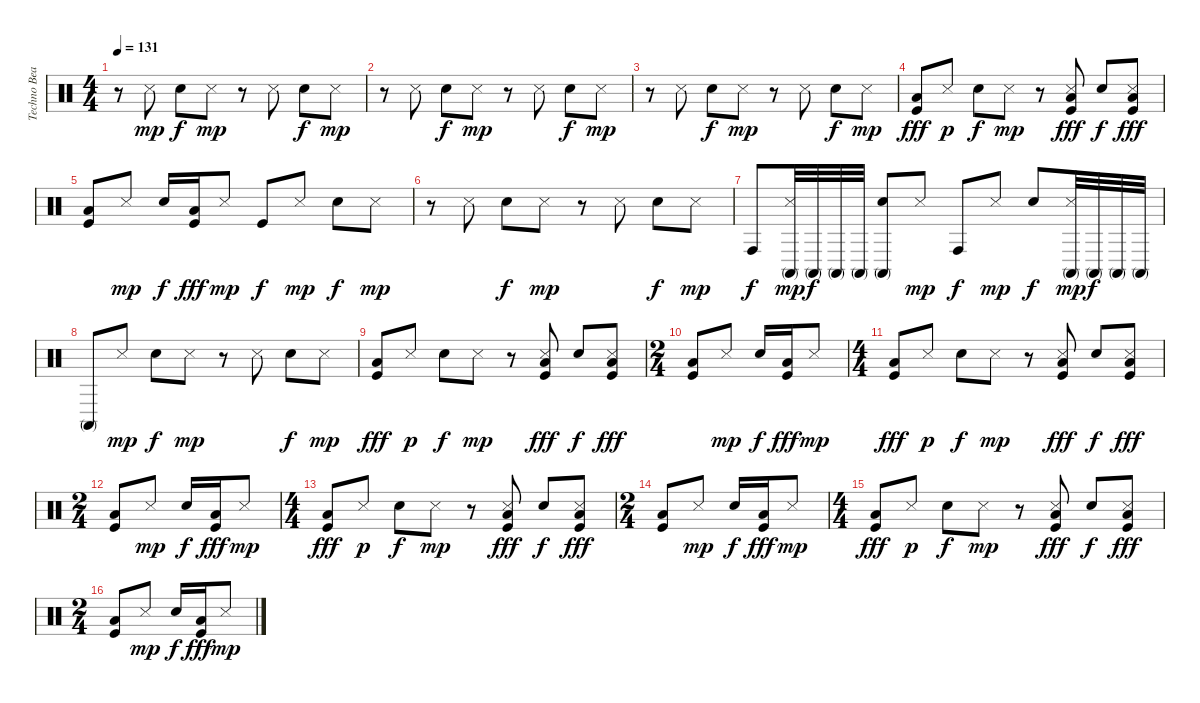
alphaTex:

\track ("Techno Beat" "Techno Bea") {instrument percussion}
\staff {score}
\articulation defaults
\ts (4 4)
\tempo 131
\clef neutral
\ks c
r.8{dy mp} "Snare (side stick) 3".8 "Electric Snare (hit)".8{dy f} "Snare (side stick) 3".8{dy mp} r.8 "Snare (side stick) 3".8 "Electric Snare (hit)".8{dy f} "Snare (side stick) 3".8{dy mp} |
r.8 "Snare (side stick) 3".8 "Electric Snare (hit)".8{dy f} "Snare (side stick) 3".8{dy mp} r.8 "Snare (side stick) 3".8 "Electric Snare (hit)".8{dy f} "Snare (side stick) 3".8{dy mp} |
r.8 "Snare (side stick) 3".8 "Electric Snare (hit)".8{dy f} "Snare (side stick) 3".8{dy mp} r.8 "Snare (side stick) 3".8 "Electric Snare (hit)".8{dy f} "Snare (side stick) 3".8{dy mp} |
("Low Tom (hit)" "Kick (hit)").8{dy fff} "Snare (side stick) 3".8{dy p} "Electric Snare (hit)".8{dy f} "Snare (side stick) 3".8{dy mp} r.8 ("Snare (side stick) 3" "Low Tom (hit)" "Kick (hit)").8{dy fff} "Electric Snare (hit)".8{dy f} ("Snare (side stick) 3" "Low Tom (hit)" "Kick (hit)").8{dy fff} |
("Low Tom (hit)" "Kick (hit)").8 "Snare (side stick) 3".8{dy mp} "Electric Snare (hit)".16{dy f} ("Low Tom (hit)" "Kick (hit)").16{dy fff} "Snare (side stick) 3".8{dy mp} "Kick (hit)".8{dy f} "Snare (side stick) 3".8{dy mp} "Electric Snare (hit)".8{dy f} "Snare (side stick) 3".8{dy mp} |
r.8 "Snare (side stick) 3".8 "Electric Snare (hit)".8{dy f} "Snare (side stick) 3".8{dy mp} r.8 "Snare (side stick) 3".8 "Electric Snare (hit)".8{dy f} "Snare (side stick) 3".8{dy mp} |
"Conga high (hit)".8{dy f} ("Snare (side stick) 3" "Conga high (mute)").32{dy mp} "Conga high (mute)".32{dy f} "Conga high (mute)".32 "Conga high (mute)".32 ("Conga high (mute)" "Electric Snare (hit)").8 "Snare (side stick) 3".8{dy mp} "Conga high (hit)".8{dy f} "Snare (side stick) 3".8{dy mp} "Electric Snare (hit)".8{dy f} ("Snare (side stick) 3" "Conga high (mute)").32{dy mp} "Conga high (mute)".32{dy f} "Conga high (mute)".32 "Conga high (mute)".32 |
"Conga high (mute)".8 "Snare (side stick) 3".8{dy mp} "Electric Snare (hit)".8{dy f} "Snare (side stick) 3".8{dy mp} r.8 "Snare (side stick) 3".8 "Electric Snare (hit)".8{dy f} "Snare (side stick) 3".8{dy mp} |
("Low Tom (hit)" "Kick (hit)").8{dy fff} "Snare (side stick) 3".8{dy p} "Electric Snare (hit)".8{dy f} "Snare (side stick) 3".8{dy mp} r.8 ("Snare (side stick) 3" "Low Tom (hit)" "Kick (hit)").8{dy fff} "Electric Snare (hit)".8{dy f} ("Snare (side stick) 3" "Low Tom (hit)" "Kick (hit)").8{dy fff} |
\ts (2 4)
("Low Tom (hit)" "Kick (hit)").8 "Snare (side stick) 3".8{dy mp} "Electric Snare (hit)".16{dy f} ("Low Tom (hit)" "Kick (hit)").16{dy fff} "Snare (side stick) 3".8{dy mp} |
\ts (4 4)
("Low Tom (hit)" "Kick (hit)").8{dy fff} "Snare (side stick) 3".8{dy p} "Electric Snare (hit)".8{dy f} "Snare (side stick) 3".8{dy mp} r.8 ("Snare (side stick) 3" "Low Tom (hit)" "Kick (hit)").8{dy fff} "Electric Snare (hit)".8{dy f} ("Snare (side stick) 3" "Low Tom (hit)" "Kick (hit)").8{dy fff} |
\ts (2 4)
("Low Tom (hit)" "Kick (hit)").8 "Snare (side stick) 3".8{dy mp} "Electric Snare (hit)".16{dy f} ("Low Tom (hit)" "Kick (hit)").16{dy fff} "Snare (side stick) 3".8{dy mp} |
\ts (4 4)
("Low Tom (hit)" "Kick (hit)").8{dy fff} "Snare (side stick) 3".8{dy p} "Electric Snare (hit)".8{dy f} "Snare (side stick) 3".8{dy mp} r.8 ("Snare (side stick) 3" "Low Tom (hit)" "Kick (hit)").8{dy fff} "Electric Snare (hit)".8{dy f} ("Snare (side stick) 3" "Low Tom (hit)" "Kick (hit)").8{dy fff} |
\ts (2 4)
("Low Tom (hit)" "Kick (hit)").8 "Snare (side stick) 3".8{dy mp} "Electric Snare (hit)".16{dy f} ("Low Tom (hit)" "Kick (hit)").16{dy fff} "Snare (side stick) 3".8{dy mp} |
\ts (4 4)
("Low Tom (hit)" "Kick (hit)").8{dy fff} "Snare (side stick) 3".8{dy p} "Electric Snare (hit)".8{dy f} "Snare (side stick) 3".8{dy mp} r.8 ("Snare (side stick) 3" "Low Tom (hit)" "Kick (hit)").8{dy fff} "Electric Snare (hit)".8{dy f} ("Snare (side stick) 3" "Low Tom (hit)" "Kick (hit)").8{dy fff} |
\ts (2 4)
("Low Tom (hit)" "Kick (hit)").8 "Snare (side stick) 3".8{dy mp} "Electric Snare (hit)".16{dy f} ("Low Tom (hit)" "Kick (hit)").16{dy fff} "Snare (side stick) 3".8{dy mp}
